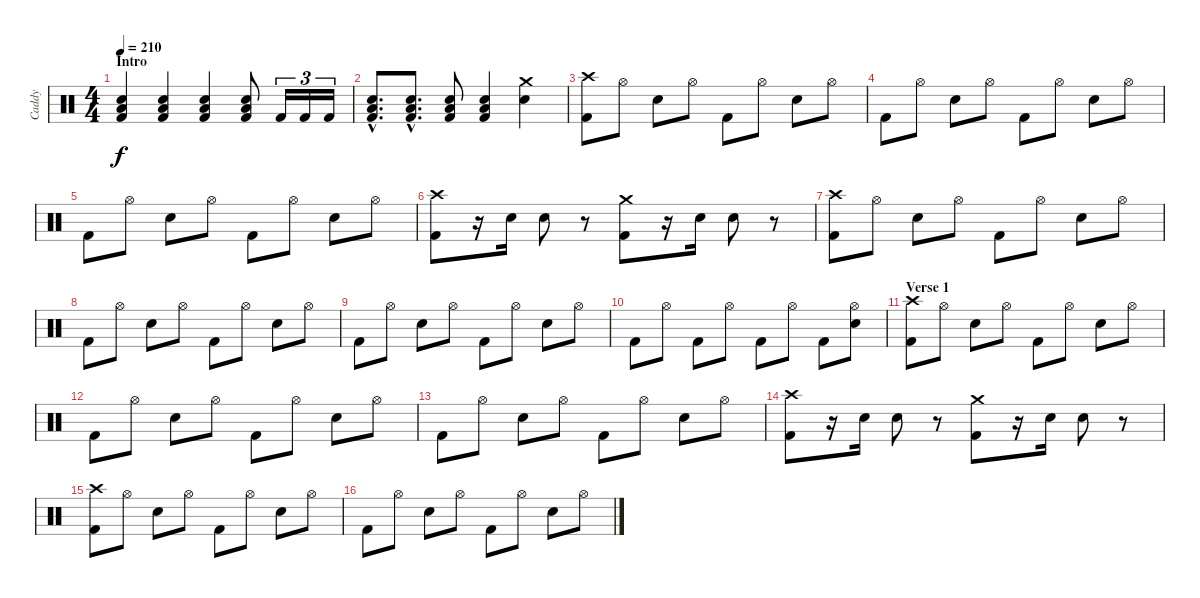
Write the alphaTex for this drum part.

\track ("Caddy" "Caddy") {instrument percussion}
\staff {score}
\articulation defaults
\ts (4 4)
\section ("" "Intro")
\tempo 210
\clef neutral
\ks c
("Electric Snare (hit)" "Low Floor Tom (hit)" "Kick (hit) 2").4{dy f} ("Electric Snare (hit)" "Low Floor Tom (hit)" "Kick (hit) 2").4 ("Electric Snare (hit)" "Low Floor Tom (hit)" "Kick (hit) 2").4 ("Electric Snare (hit)" "Low Floor Tom (hit)" "Kick (hit) 2").8 "Kick (hit) 2".16{tu (3 2)} "Kick (hit) 2".16{tu (3 2)} "Kick (hit) 2".16{tu (3 2)} |
("Electric Snare (hit)"{hac} "Low Floor Tom (hit)"{hac} "Kick (hit) 2"{hac}).8{d} ("Electric Snare (hit)"{hac} "Low Floor Tom (hit)"{hac} "Kick (hit) 2"{hac}).8{d} ("Electric Snare (hit)" "Low Floor Tom (hit)" "Kick (hit) 2").8 ("Electric Snare (hit)" "Low Floor Tom (hit)" "Kick (hit) 2").4 ("Crash medium (hit)" "Electric Snare (hit)").4 |
("Crash high (hit)" "Kick (hit) 2").8 "Hi-Hat (open)".8 "Electric Snare (hit)".8 "Hi-Hat (open)".8 "Kick (hit) 2".8 "Hi-Hat (open)".8 "Electric Snare (hit)".8 "Hi-Hat (open)".8 |
"Kick (hit) 2".8 "Hi-Hat (open)".8 "Electric Snare (hit)".8 "Hi-Hat (open)".8 "Kick (hit) 2".8 "Hi-Hat (open)".8 "Electric Snare (hit)".8 "Hi-Hat (open)".8 |
"Kick (hit) 2".8 "Hi-Hat (open)".8 "Electric Snare (hit)".8 "Hi-Hat (open)".8 "Kick (hit) 2".8 "Hi-Hat (open)".8 "Electric Snare (hit)".8 "Hi-Hat (open)".8 |
("Crash high (hit)" "Kick (hit) 2").8 r.16 "Electric Snare (hit)".16 "Electric Snare (hit)".8 r.8 ("Crash medium (hit)" "Kick (hit) 2").8 r.16 "Electric Snare (hit)".16 "Electric Snare (hit)".8 r.8 |
("Crash high (hit)" "Kick (hit) 2").8 "Hi-Hat (open)".8 "Electric Snare (hit)".8 "Hi-Hat (open)".8 "Kick (hit) 2".8 "Hi-Hat (open)".8 "Electric Snare (hit)".8 "Hi-Hat (open)".8 |
"Kick (hit) 2".8 "Hi-Hat (open)".8 "Electric Snare (hit)".8 "Hi-Hat (open)".8 "Kick (hit) 2".8 "Hi-Hat (open)".8 "Electric Snare (hit)".8 "Hi-Hat (open)".8 |
"Kick (hit) 2".8 "Hi-Hat (open)".8 "Electric Snare (hit)".8 "Hi-Hat (open)".8 "Kick (hit) 2".8 "Hi-Hat (open)".8 "Electric Snare (hit)".8 "Hi-Hat (open)".8 |
"Kick (hit) 2".8 "Hi-Hat (open)".8 "Kick (hit) 2".8 "Hi-Hat (open)".8 "Kick (hit) 2".8 "Hi-Hat (open)".8 "Kick (hit) 2".8 ("Hi-Hat (open)" "Electric Snare (hit)").8 |
\section ("" "Verse 1")
("Crash high (hit)" "Kick (hit) 2").8 "Hi-Hat (open)".8 "Electric Snare (hit)".8 "Hi-Hat (open)".8 "Kick (hit) 2".8 "Hi-Hat (open)".8 "Electric Snare (hit)".8 "Hi-Hat (open)".8 |
"Kick (hit) 2".8 "Hi-Hat (open)".8 "Electric Snare (hit)".8 "Hi-Hat (open)".8 "Kick (hit) 2".8 "Hi-Hat (open)".8 "Electric Snare (hit)".8 "Hi-Hat (open)".8 |
"Kick (hit) 2".8 "Hi-Hat (open)".8 "Electric Snare (hit)".8 "Hi-Hat (open)".8 "Kick (hit) 2".8 "Hi-Hat (open)".8 "Electric Snare (hit)".8 "Hi-Hat (open)".8 |
("Crash high (hit)" "Kick (hit) 2").8 r.16 "Electric Snare (hit)".16 "Electric Snare (hit)".8 r.8 ("Crash medium (hit)" "Kick (hit) 2").8 r.16 "Electric Snare (hit)".16 "Electric Snare (hit)".8 r.8 |
("Crash high (hit)" "Kick (hit) 2").8 "Hi-Hat (open)".8 "Electric Snare (hit)".8 "Hi-Hat (open)".8 "Kick (hit) 2".8 "Hi-Hat (open)".8 "Electric Snare (hit)".8 "Hi-Hat (open)".8 |
"Kick (hit) 2".8 "Hi-Hat (open)".8 "Electric Snare (hit)".8 "Hi-Hat (open)".8 "Kick (hit) 2".8 "Hi-Hat (open)".8 "Electric Snare (hit)".8 "Hi-Hat (open)".8
